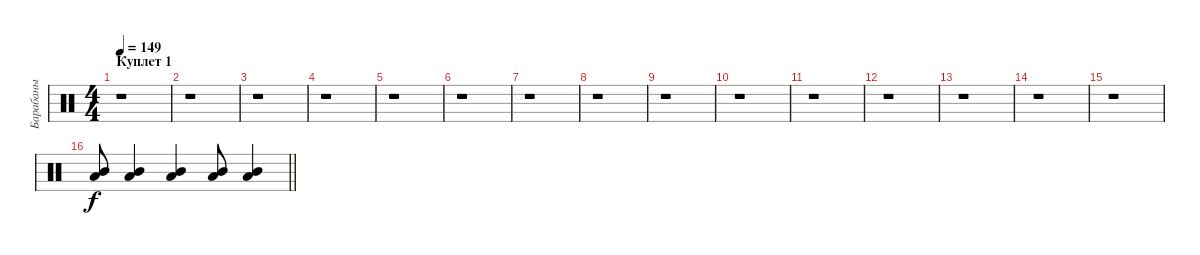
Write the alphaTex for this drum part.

\track ("Барабаны" "Барабаны") {instrument percussion}
\staff {score}
\articulation defaults
\ts (4 4)
\section ("" "Куплет 1")
\tempo 149
\clef neutral
\ks c
r.1{dy f} |
r.1 |
r.1 |
r.1 |
r.1 |
r.1 |
r.1 |
r.1 |
r.1 |
r.1 |
r.1 |
r.1 |
r.1 |
r.1 |
r.1 |
\barLineRight lightlight
("Low Tom (hit)" "Mid Tom (hit)").8 ("Low Tom (hit)" "Mid Tom (hit)").4 ("Low Tom (hit)" "Mid Tom (hit)").4 ("Low Tom (hit)" "Mid Tom (hit)").8 ("Low Tom (hit)" "Mid Tom (hit)").4
